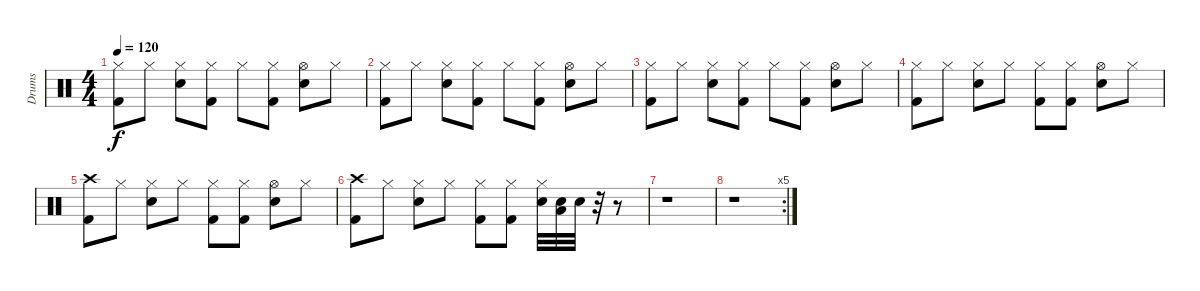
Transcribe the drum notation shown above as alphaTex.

\track ("Drums" "Drums") {instrument percussion}
\staff {score}
\articulation defaults
\ts (4 4)
\tempo 120
\clef neutral
\ks c
("Hi-Hat (closed)" "Kick (hit) 2").8{dy f} "Hi-Hat (closed)".8 ("Hi-Hat (closed)" "Snare (hit) 2").8 ("Hi-Hat (closed)" "Kick (hit) 2").8 "Hi-Hat (closed)".8 ("Hi-Hat (closed)" "Kick (hit) 2").8 ("Hi-Hat (open)" "Snare (hit) 2").8 "Hi-Hat (closed)".8 |
("Hi-Hat (closed)" "Kick (hit) 2").8 "Hi-Hat (closed)".8 ("Hi-Hat (closed)" "Snare (hit) 2").8 ("Hi-Hat (closed)" "Kick (hit) 2").8 "Hi-Hat (closed)".8 ("Hi-Hat (closed)" "Kick (hit) 2").8 ("Hi-Hat (open)" "Snare (hit) 2").8 "Hi-Hat (closed)".8 |
("Hi-Hat (closed)" "Kick (hit) 2").8 "Hi-Hat (closed)".8 ("Hi-Hat (closed)" "Snare (hit) 2").8 ("Hi-Hat (closed)" "Kick (hit) 2").8 "Hi-Hat (closed)".8 ("Hi-Hat (closed)" "Kick (hit) 2").8 ("Hi-Hat (open)" "Snare (hit) 2").8 "Hi-Hat (closed)".8 |
("Hi-Hat (closed)" "Kick (hit) 2").8 "Hi-Hat (closed)".8 ("Hi-Hat (closed)" "Snare (hit) 2").8 "Hi-Hat (closed)".8 ("Hi-Hat (closed)" "Kick (hit) 2").8 ("Hi-Hat (closed)" "Kick (hit) 2").8 ("Hi-Hat (open)" "Snare (hit) 2").8 "Hi-Hat (closed)".8 |
("Crash high (hit)" "Kick (hit) 2").8 "Hi-Hat (closed)".8 ("Hi-Hat (closed)" "Snare (hit) 2").8 "Hi-Hat (closed)".8 ("Hi-Hat (closed)" "Kick (hit) 2").8 ("Hi-Hat (closed)" "Kick (hit) 2").8 ("Hi-Hat (open)" "Snare (hit) 2").8 "Hi-Hat (closed)".8 |
("Crash high (hit)" "Kick (hit) 2").8 "Hi-Hat (closed)".8 ("Hi-Hat (closed)" "Snare (hit) 2").8 "Hi-Hat (closed)".8 ("Hi-Hat (closed)" "Kick (hit) 2").8 ("Hi-Hat (closed)" "Kick (hit) 2").8 ("Hi-Hat (closed)" "Snare (hit) 2").32 ("Snare (hit) 2" "Low Floor Tom (hit)").32 "Snare (hit) 2".32 r.32 r.8 |
r.1 |
\rc 5
r.1
